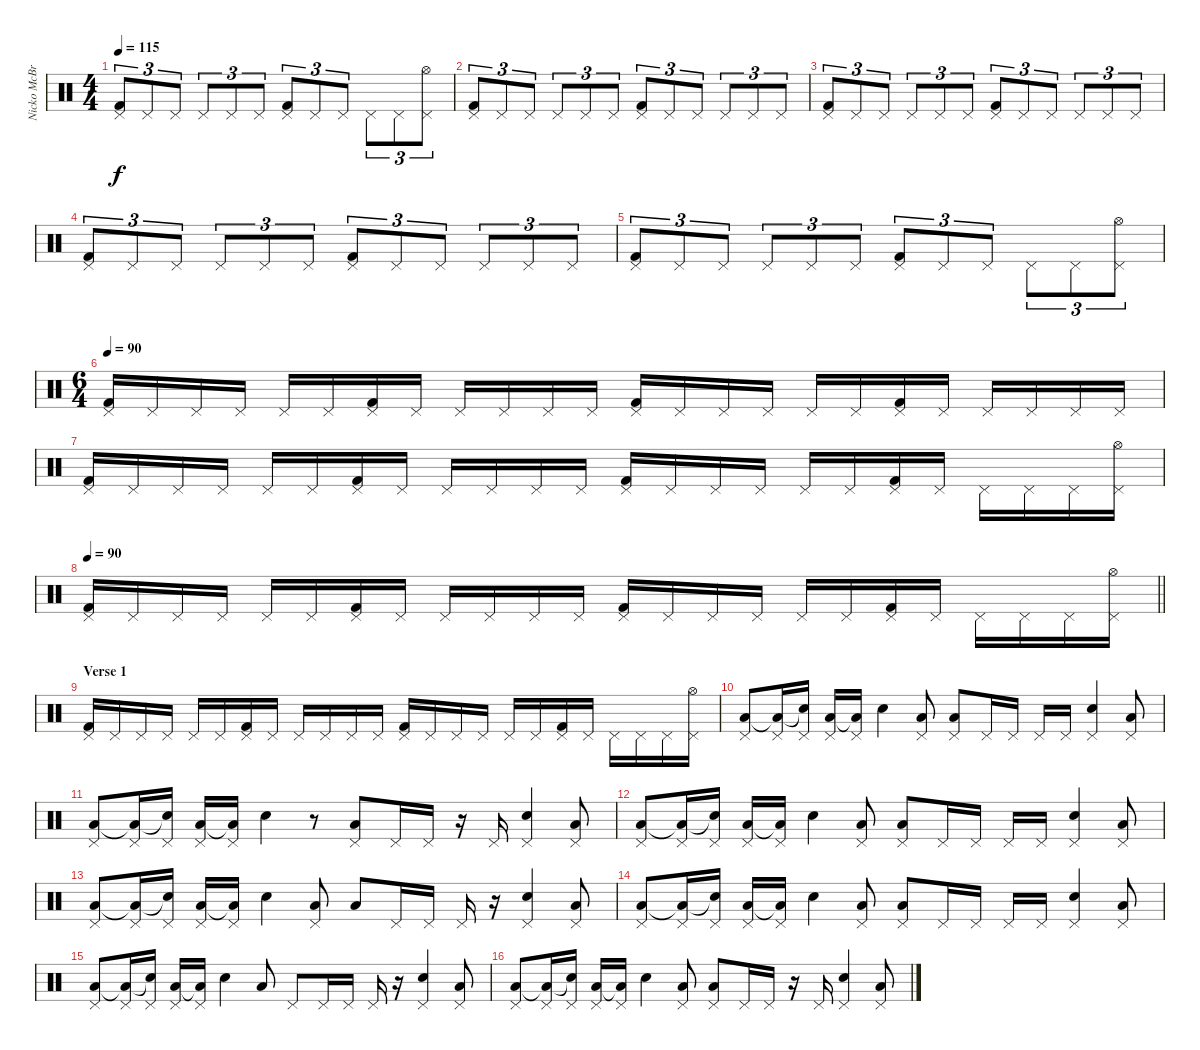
\track ("Nicko McBrain" "Nicko McBr") {instrument percussion}
\staff {score}
\articulation defaults
\ts (4 4)
\tempo 115
\clef neutral
\ks c
("Pedal Hi-Hat (hit)" "Kick (hit) 2").8{tu (3 2) dy f} "Pedal Hi-Hat (hit)".8{tu (3 2)} "Pedal Hi-Hat (hit)".8{tu (3 2)} "Pedal Hi-Hat (hit)".8{tu (3 2)} "Pedal Hi-Hat (hit)".8{tu (3 2)} "Pedal Hi-Hat (hit)".8{tu (3 2)} ("Pedal Hi-Hat (hit)" "Kick (hit) 2").8{tu (3 2)} "Pedal Hi-Hat (hit)".8{tu (3 2)} "Pedal Hi-Hat (hit)".8{tu (3 2)} "Pedal Hi-Hat (hit)".8{tu (3 2)} "Pedal Hi-Hat (hit)".8{tu (3 2)} ("Pedal Hi-Hat (hit)" "Hi-Hat (open)").8{tu (3 2)} |
("Pedal Hi-Hat (hit)" "Kick (hit) 2").8{tu (3 2)} "Pedal Hi-Hat (hit)".8{tu (3 2)} "Pedal Hi-Hat (hit)".8{tu (3 2)} "Pedal Hi-Hat (hit)".8{tu (3 2)} "Pedal Hi-Hat (hit)".8{tu (3 2)} "Pedal Hi-Hat (hit)".8{tu (3 2)} ("Pedal Hi-Hat (hit)" "Kick (hit) 2").8{tu (3 2)} "Pedal Hi-Hat (hit)".8{tu (3 2)} "Pedal Hi-Hat (hit)".8{tu (3 2)} "Pedal Hi-Hat (hit)".8{tu (3 2)} "Pedal Hi-Hat (hit)".8{tu (3 2)} "Pedal Hi-Hat (hit)".8{tu (3 2)} |
("Pedal Hi-Hat (hit)" "Kick (hit) 2").8{tu (3 2)} "Pedal Hi-Hat (hit)".8{tu (3 2)} "Pedal Hi-Hat (hit)".8{tu (3 2)} "Pedal Hi-Hat (hit)".8{tu (3 2)} "Pedal Hi-Hat (hit)".8{tu (3 2)} "Pedal Hi-Hat (hit)".8{tu (3 2)} ("Pedal Hi-Hat (hit)" "Kick (hit) 2").8{tu (3 2)} "Pedal Hi-Hat (hit)".8{tu (3 2)} "Pedal Hi-Hat (hit)".8{tu (3 2)} "Pedal Hi-Hat (hit)".8{tu (3 2)} "Pedal Hi-Hat (hit)".8{tu (3 2)} "Pedal Hi-Hat (hit)".8{tu (3 2)} |
("Pedal Hi-Hat (hit)" "Kick (hit) 2").8{tu (3 2)} "Pedal Hi-Hat (hit)".8{tu (3 2)} "Pedal Hi-Hat (hit)".8{tu (3 2)} "Pedal Hi-Hat (hit)".8{tu (3 2)} "Pedal Hi-Hat (hit)".8{tu (3 2)} "Pedal Hi-Hat (hit)".8{tu (3 2)} ("Pedal Hi-Hat (hit)" "Kick (hit) 2").8{tu (3 2)} "Pedal Hi-Hat (hit)".8{tu (3 2)} "Pedal Hi-Hat (hit)".8{tu (3 2)} "Pedal Hi-Hat (hit)".8{tu (3 2)} "Pedal Hi-Hat (hit)".8{tu (3 2)} "Pedal Hi-Hat (hit)".8{tu (3 2)} |
("Pedal Hi-Hat (hit)" "Kick (hit) 2").8{tu (3 2)} "Pedal Hi-Hat (hit)".8{tu (3 2)} "Pedal Hi-Hat (hit)".8{tu (3 2)} "Pedal Hi-Hat (hit)".8{tu (3 2)} "Pedal Hi-Hat (hit)".8{tu (3 2)} "Pedal Hi-Hat (hit)".8{tu (3 2)} ("Pedal Hi-Hat (hit)" "Kick (hit) 2").8{tu (3 2)} "Pedal Hi-Hat (hit)".8{tu (3 2)} "Pedal Hi-Hat (hit)".8{tu (3 2)} "Pedal Hi-Hat (hit)".8{tu (3 2)} "Pedal Hi-Hat (hit)".8{tu (3 2)} ("Pedal Hi-Hat (hit)" "Hi-Hat (open)").8{tu (3 2)} |
\ts (6 4)
\tempo 95
\tempo 90
("Pedal Hi-Hat (hit)" "Kick (hit) 2").16 "Pedal Hi-Hat (hit)".16 "Pedal Hi-Hat (hit)".16 "Pedal Hi-Hat (hit)".16 "Pedal Hi-Hat (hit)".16 "Pedal Hi-Hat (hit)".16 ("Pedal Hi-Hat (hit)" "Kick (hit) 2").16 "Pedal Hi-Hat (hit)".16 "Pedal Hi-Hat (hit)".16 "Pedal Hi-Hat (hit)".16 "Pedal Hi-Hat (hit)".16 "Pedal Hi-Hat (hit)".16 ("Pedal Hi-Hat (hit)" "Kick (hit) 2").16 "Pedal Hi-Hat (hit)".16 "Pedal Hi-Hat (hit)".16 "Pedal Hi-Hat (hit)".16 "Pedal Hi-Hat (hit)".16 "Pedal Hi-Hat (hit)".16 ("Pedal Hi-Hat (hit)" "Kick (hit) 2").16 "Pedal Hi-Hat (hit)".16 "Pedal Hi-Hat (hit)".16 "Pedal Hi-Hat (hit)".16 "Pedal Hi-Hat (hit)".16 "Pedal Hi-Hat (hit)".16 |
("Pedal Hi-Hat (hit)" "Kick (hit) 2").16 "Pedal Hi-Hat (hit)".16 "Pedal Hi-Hat (hit)".16 "Pedal Hi-Hat (hit)".16 "Pedal Hi-Hat (hit)".16 "Pedal Hi-Hat (hit)".16 ("Pedal Hi-Hat (hit)" "Kick (hit) 2").16 "Pedal Hi-Hat (hit)".16 "Pedal Hi-Hat (hit)".16 "Pedal Hi-Hat (hit)".16 "Pedal Hi-Hat (hit)".16 "Pedal Hi-Hat (hit)".16 ("Pedal Hi-Hat (hit)" "Kick (hit) 2").16 "Pedal Hi-Hat (hit)".16 "Pedal Hi-Hat (hit)".16 "Pedal Hi-Hat (hit)".16 "Pedal Hi-Hat (hit)".16 "Pedal Hi-Hat (hit)".16 ("Pedal Hi-Hat (hit)" "Kick (hit) 2").16 "Pedal Hi-Hat (hit)".16 "Pedal Hi-Hat (hit)".16 "Pedal Hi-Hat (hit)".16 "Pedal Hi-Hat (hit)".16 ("Pedal Hi-Hat (hit)" "Hi-Hat (open)").16 |
\tempo 90
\barLineRight lightlight
("Pedal Hi-Hat (hit)" "Kick (hit) 2").16 "Pedal Hi-Hat (hit)".16 "Pedal Hi-Hat (hit)".16 "Pedal Hi-Hat (hit)".16 "Pedal Hi-Hat (hit)".16 "Pedal Hi-Hat (hit)".16 ("Pedal Hi-Hat (hit)" "Kick (hit) 2").16 "Pedal Hi-Hat (hit)".16 "Pedal Hi-Hat (hit)".16 "Pedal Hi-Hat (hit)".16 "Pedal Hi-Hat (hit)".16 "Pedal Hi-Hat (hit)".16 ("Pedal Hi-Hat (hit)" "Kick (hit) 2").16 "Pedal Hi-Hat (hit)".16 "Pedal Hi-Hat (hit)".16 "Pedal Hi-Hat (hit)".16 "Pedal Hi-Hat (hit)".16 "Pedal Hi-Hat (hit)".16 ("Pedal Hi-Hat (hit)" "Kick (hit) 2").16 "Pedal Hi-Hat (hit)".16 "Pedal Hi-Hat (hit)".16 "Pedal Hi-Hat (hit)".16 "Pedal Hi-Hat (hit)".16 ("Pedal Hi-Hat (hit)" "Hi-Hat (open)").16 |
\section ("" "Verse 1")
("Pedal Hi-Hat (hit)" "Kick (hit) 2").16 "Pedal Hi-Hat (hit)".16 "Pedal Hi-Hat (hit)".16 "Pedal Hi-Hat (hit)".16 "Pedal Hi-Hat (hit)".16 "Pedal Hi-Hat (hit)".16 ("Pedal Hi-Hat (hit)" "Kick (hit) 2").16 "Pedal Hi-Hat (hit)".16 "Pedal Hi-Hat (hit)".16 "Pedal Hi-Hat (hit)".16 "Pedal Hi-Hat (hit)".16 "Pedal Hi-Hat (hit)".16 ("Pedal Hi-Hat (hit)" "Kick (hit) 2").16 "Pedal Hi-Hat (hit)".16 "Pedal Hi-Hat (hit)".16 "Pedal Hi-Hat (hit)".16 "Pedal Hi-Hat (hit)".16 "Pedal Hi-Hat (hit)".16 ("Pedal Hi-Hat (hit)" "Kick (hit) 2").16 "Pedal Hi-Hat (hit)".16 "Pedal Hi-Hat (hit)".16 "Pedal Hi-Hat (hit)".16 "Pedal Hi-Hat (hit)".16 ("Pedal Hi-Hat (hit)" "Hi-Hat (open)").16 |
("Pedal Hi-Hat (hit)" "Low Floor Tom (hit)").8 ("Pedal Hi-Hat (hit)" "Low Floor Tom (hit)"{t}).16 ("Pedal Hi-Hat (hit)" "Electric Snare (hit)"{t}).16 ("Pedal Hi-Hat (hit)" "Low Floor Tom (hit)").16 ("Pedal Hi-Hat (hit)" "Low Floor Tom (hit)"{t}).16 "Electric Snare (hit)".4 ("Pedal Hi-Hat (hit)" "Low Floor Tom (hit)").8 ("Pedal Hi-Hat (hit)" "Low Floor Tom (hit)").8 "Pedal Hi-Hat (hit)".16 "Pedal Hi-Hat (hit)".16 "Pedal Hi-Hat (hit)".16 "Pedal Hi-Hat (hit)".16 ("Pedal Hi-Hat (hit)" "Electric Snare (hit)").4 ("Pedal Hi-Hat (hit)" "Low Floor Tom (hit)").8 |
("Pedal Hi-Hat (hit)" "Low Floor Tom (hit)").8 ("Pedal Hi-Hat (hit)" "Low Floor Tom (hit)"{t}).16 ("Pedal Hi-Hat (hit)" "Electric Snare (hit)"{t}).16 ("Pedal Hi-Hat (hit)" "Low Floor Tom (hit)").16 ("Pedal Hi-Hat (hit)" "Low Floor Tom (hit)"{t}).16 "Electric Snare (hit)".4 r.8 ("Pedal Hi-Hat (hit)" "Low Floor Tom (hit)").8 "Pedal Hi-Hat (hit)".16 "Pedal Hi-Hat (hit)".16 r.16 "Pedal Hi-Hat (hit)".16 ("Pedal Hi-Hat (hit)" "Electric Snare (hit)").4 ("Pedal Hi-Hat (hit)" "Low Floor Tom (hit)").8 |
("Pedal Hi-Hat (hit)" "Low Floor Tom (hit)").8 ("Pedal Hi-Hat (hit)" "Low Floor Tom (hit)"{t}).16 ("Pedal Hi-Hat (hit)" "Electric Snare (hit)"{t}).16 ("Pedal Hi-Hat (hit)" "Low Floor Tom (hit)").16 ("Pedal Hi-Hat (hit)" "Low Floor Tom (hit)"{t}).16 "Electric Snare (hit)".4 ("Pedal Hi-Hat (hit)" "Low Floor Tom (hit)").8 ("Pedal Hi-Hat (hit)" "Low Floor Tom (hit)").8 "Pedal Hi-Hat (hit)".16 "Pedal Hi-Hat (hit)".16 "Pedal Hi-Hat (hit)".16 "Pedal Hi-Hat (hit)".16 ("Pedal Hi-Hat (hit)" "Electric Snare (hit)").4 ("Pedal Hi-Hat (hit)" "Low Floor Tom (hit)").8 |
("Pedal Hi-Hat (hit)" "Low Floor Tom (hit)").8 ("Pedal Hi-Hat (hit)" "Low Floor Tom (hit)"{t}).16 ("Pedal Hi-Hat (hit)" "Electric Snare (hit)"{t}).16 ("Pedal Hi-Hat (hit)" "Low Floor Tom (hit)").16 ("Pedal Hi-Hat (hit)" "Low Floor Tom (hit)"{t}).16 "Electric Snare (hit)".4 ("Pedal Hi-Hat (hit)" "Low Floor Tom (hit)").8 "Low Floor Tom (hit)".8 "Pedal Hi-Hat (hit)".16 "Pedal Hi-Hat (hit)".16 "Pedal Hi-Hat (hit)".16 r.16 ("Pedal Hi-Hat (hit)" "Electric Snare (hit)").4 ("Pedal Hi-Hat (hit)" "Low Floor Tom (hit)").8 |
("Pedal Hi-Hat (hit)" "Low Floor Tom (hit)").8 ("Pedal Hi-Hat (hit)" "Low Floor Tom (hit)"{t}).16 ("Pedal Hi-Hat (hit)" "Electric Snare (hit)"{t}).16 ("Pedal Hi-Hat (hit)" "Low Floor Tom (hit)").16 ("Pedal Hi-Hat (hit)" "Low Floor Tom (hit)"{t}).16 "Electric Snare (hit)".4 ("Pedal Hi-Hat (hit)" "Low Floor Tom (hit)").8 ("Pedal Hi-Hat (hit)" "Low Floor Tom (hit)").8 "Pedal Hi-Hat (hit)".16 "Pedal Hi-Hat (hit)".16 "Pedal Hi-Hat (hit)".16 "Pedal Hi-Hat (hit)".16 ("Pedal Hi-Hat (hit)" "Electric Snare (hit)").4 ("Pedal Hi-Hat (hit)" "Low Floor Tom (hit)").8 |
("Pedal Hi-Hat (hit)" "Low Floor Tom (hit)").8 ("Pedal Hi-Hat (hit)" "Low Floor Tom (hit)"{t}).16 ("Pedal Hi-Hat (hit)" "Electric Snare (hit)"{t}).16 ("Pedal Hi-Hat (hit)" "Low Floor Tom (hit)").16 ("Pedal Hi-Hat (hit)" "Low Floor Tom (hit)"{t}).16 "Electric Snare (hit)".4 "Low Floor Tom (hit)".8 "Pedal Hi-Hat (hit)".8 "Pedal Hi-Hat (hit)".16 "Pedal Hi-Hat (hit)".16 "Pedal Hi-Hat (hit)".16 r.16 ("Pedal Hi-Hat (hit)" "Electric Snare (hit)").4 ("Pedal Hi-Hat (hit)" "Low Floor Tom (hit)").8 |
("Pedal Hi-Hat (hit)" "Low Floor Tom (hit)").8 ("Pedal Hi-Hat (hit)" "Low Floor Tom (hit)"{t}).16 ("Pedal Hi-Hat (hit)" "Electric Snare (hit)"{t}).16 ("Pedal Hi-Hat (hit)" "Low Floor Tom (hit)").16 ("Pedal Hi-Hat (hit)" "Low Floor Tom (hit)"{t}).16 "Electric Snare (hit)".4 ("Pedal Hi-Hat (hit)" "Low Floor Tom (hit)").8 ("Pedal Hi-Hat (hit)" "Low Floor Tom (hit)").8 "Pedal Hi-Hat (hit)".16 "Pedal Hi-Hat (hit)".16 r.16 "Pedal Hi-Hat (hit)".16 ("Pedal Hi-Hat (hit)" "Electric Snare (hit)").4 ("Pedal Hi-Hat (hit)" "Low Floor Tom (hit)").8
